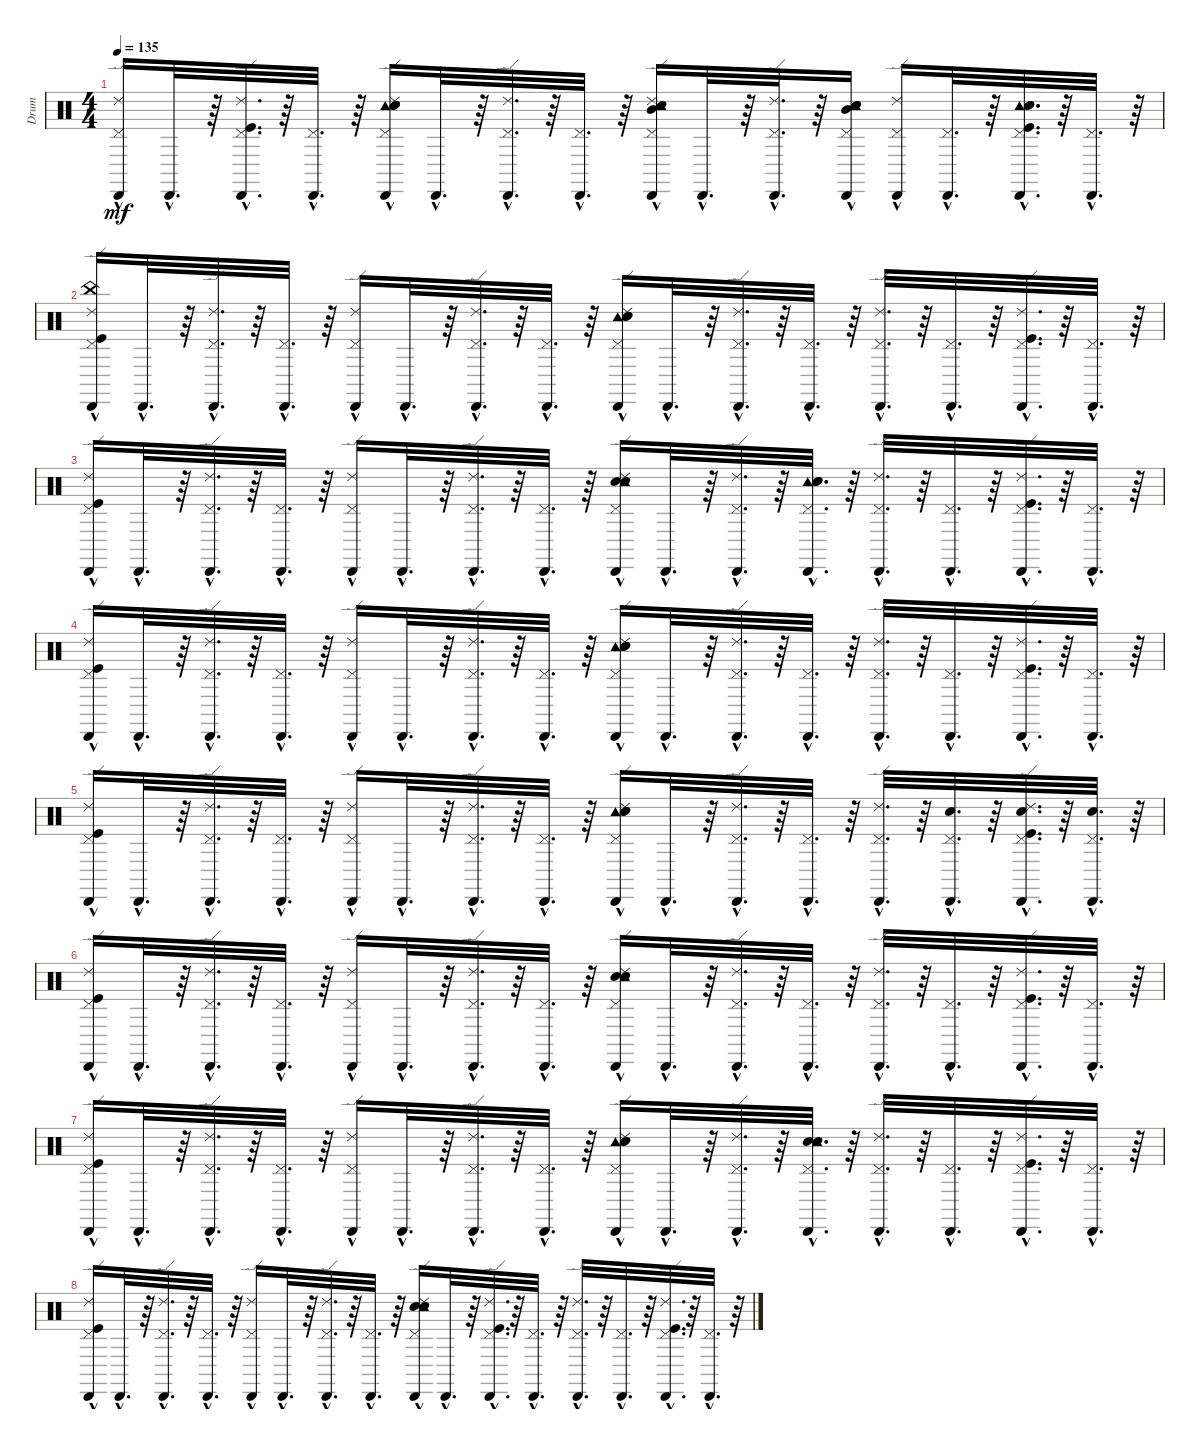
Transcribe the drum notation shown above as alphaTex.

\track ("Drum" "Drum") {instrument percussion}
\staff {score}
\articulation defaults
\ts (4 4)
\tempo 135
\clef neutral
\ks c
("Cabasa (hit)"{hac} "Ride (edge) 2"{hac} "Pedal Hi-Hat (hit)"{hac}).16{dy mf} "Cabasa (hit)"{hac}.32{d} r.64 ("Cabasa (hit)"{hac} "Kick (hit)"{hac} "Pedal Hi-Hat (hit)"{hac} "Ride (edge) 2"{hac}).32{d} r.64 ("Cabasa (hit)"{hac} "Pedal Hi-Hat (hit)"{hac}).32{d} r.64 ("Cabasa (hit)"{hac} "Tambourine (hit)"{hac} "Electric Snare (hit)"{hac} "Snare (hit) 2" "Pedal Hi-Hat (hit)"{hac} "Ride (edge) 2"{hac}).16 "Cabasa (hit)"{hac}.32{d} r.64 ("Cabasa (hit)"{hac} "Pedal Hi-Hat (hit)"{hac} "Ride (edge) 2"{hac}).32{d} r.64 ("Cabasa (hit)"{hac} "Pedal Hi-Hat (hit)"{hac}).32{d} r.64 ("Cabasa (hit)"{hac} "Mid Tom (hit)"{hac} "Ride (edge) 2"{hac} "Pedal Hi-Hat (hit)"{hac} "Tambourine (hit)"{hac} "Electric Snare (hit)"{hac}).16 "Cabasa (hit)"{hac}.32{d} r.64 ("Cabasa (hit)"{hac} "Pedal Hi-Hat (hit)"{hac} "Ride (edge) 2"{hac}).32{d} r.64 ("Cabasa (hit)"{hac} "Mid Tom (hit)" "Pedal Hi-Hat (hit)"{hac} "Snare (hit) 2"{hac} "Electric Snare (hit)"{hac} "Tambourine (hit)"{hac}).16 ("Cabasa (hit)"{hac} "Pedal Hi-Hat (hit)"{hac} "Ride (edge) 2").16 ("Cabasa (hit)"{hac} "Pedal Hi-Hat (hit)"{hac}).32{d} r.64 ("Cabasa (hit)"{hac} "Tambourine (hit)"{hac} "Electric Snare (hit)"{hac} "Snare (hit) 2"{hac} "Pedal Hi-Hat (hit)"{hac} "Kick (hit)"{hac}).32{d} r.64 ("Cabasa (hit)"{hac} "Pedal Hi-Hat (hit)"{hac}).32{d} r.64 |
("Cabasa (hit)"{hac} "China (hit)"{hac} "Ride (edge) 2"{hac} "Kick (hit)"{hac} "Pedal Hi-Hat (hit)"{hac}).16 "Cabasa (hit)"{hac}.32{d} r.64 ("Cabasa (hit)"{hac} "Ride (edge) 2"{hac} "Pedal Hi-Hat (hit)"{hac}).32{d} r.64 ("Cabasa (hit)"{hac} "Pedal Hi-Hat (hit)"{hac}).32{d} r.64 ("Cabasa (hit)"{hac} "Ride (edge) 2"{hac} "Pedal Hi-Hat (hit)"{hac}).16 "Cabasa (hit)"{hac}.32{d} r.64 ("Cabasa (hit)"{hac} "Ride (edge) 2"{hac} "Pedal Hi-Hat (hit)"{hac}).32{d} r.64 ("Cabasa (hit)"{hac} "Pedal Hi-Hat (hit)"{hac}).32{d} r.64 ("Cabasa (hit)"{hac} "Tambourine (hit)"{hac} "Ride (edge) 2"{hac} "Pedal Hi-Hat (hit)"{hac} "Electric Snare (hit)"{hac} "Snare (hit) 2"{hac}).16 "Cabasa (hit)"{hac}.32{d} r.64 ("Cabasa (hit)"{hac} "Ride (edge) 2"{hac} "Pedal Hi-Hat (hit)"{hac}).32{d} r.64 ("Cabasa (hit)"{hac} "Pedal Hi-Hat (hit)"{hac}).32{d} r.64 ("Cabasa (hit)"{hac} "Ride (edge) 2"{hac} "Pedal Hi-Hat (hit)"{hac}).32{d} r.64 ("Cabasa (hit)"{hac} "Pedal Hi-Hat (hit)"{hac}).32{d} r.64 ("Cabasa (hit)"{hac} "Ride (edge) 2"{hac} "Kick (hit)"{hac} "Pedal Hi-Hat (hit)"{hac}).32{d} r.64 ("Cabasa (hit)"{hac} "Pedal Hi-Hat (hit)"{hac}).32{d} r.64 |
("Cabasa (hit)"{hac} "Ride (edge) 2"{hac} "Kick (hit)"{hac} "Pedal Hi-Hat (hit)"{hac}).16 "Cabasa (hit)"{hac}.32{d} r.64 ("Cabasa (hit)"{hac} "Ride (edge) 2"{hac} "Pedal Hi-Hat (hit)"{hac}).32{d} r.64 ("Cabasa (hit)"{hac} "Pedal Hi-Hat (hit)"{hac}).32{d} r.64 ("Cabasa (hit)"{hac} "Ride (edge) 2"{hac} "Pedal Hi-Hat (hit)"{hac}).16 "Cabasa (hit)"{hac}.32{d} r.64 ("Cabasa (hit)"{hac} "Ride (edge) 2"{hac} "Pedal Hi-Hat (hit)"{hac}).32{d} r.64 ("Cabasa (hit)"{hac} "Pedal Hi-Hat (hit)"{hac}).32{d} r.64 ("Cabasa (hit)"{hac} "Electric Snare (hit)"{hac} "Tambourine (hit)"{hac} "Ride (edge) 2"{hac} "Snare (hit) 2"{hac} "Pedal Hi-Hat (hit)"{hac}).16 "Cabasa (hit)"{hac}.32{d} r.64 ("Cabasa (hit)"{hac} "Ride (edge) 2"{hac} "Pedal Hi-Hat (hit)"{hac}).32{d} r.64 ("Cabasa (hit)"{hac} "Tambourine (hit)"{hac} "Snare (hit) 2"{hac} "Electric Snare (hit)"{hac} "Pedal Hi-Hat (hit)"{hac}).32{d} r.64 ("Cabasa (hit)"{hac} "Pedal Hi-Hat (hit)"{hac} "Ride (edge) 2"{hac}).32{d} r.64 ("Cabasa (hit)"{hac} "Pedal Hi-Hat (hit)"{hac}).32{d} r.64 ("Cabasa (hit)"{hac} "Kick (hit)"{hac} "Ride (edge) 2"{hac} "Pedal Hi-Hat (hit)"{hac}).32{d} r.64 ("Cabasa (hit)"{hac} "Pedal Hi-Hat (hit)"{hac}).32{d} r.64 |
("Cabasa (hit)"{hac} "Ride (edge) 2"{hac} "Kick (hit)"{hac} "Pedal Hi-Hat (hit)"{hac}).16 "Cabasa (hit)"{hac}.32{d} r.64 ("Cabasa (hit)"{hac} "Ride (edge) 2"{hac} "Pedal Hi-Hat (hit)"{hac}).32{d} r.64 ("Cabasa (hit)"{hac} "Pedal Hi-Hat (hit)"{hac}).32{d} r.64 ("Cabasa (hit)"{hac} "Ride (edge) 2"{hac} "Pedal Hi-Hat (hit)"{hac}).16 "Cabasa (hit)"{hac}.32{d} r.64 ("Cabasa (hit)"{hac} "Ride (edge) 2"{hac} "Pedal Hi-Hat (hit)"{hac}).32{d} r.64 ("Cabasa (hit)"{hac} "Pedal Hi-Hat (hit)"{hac}).32{d} r.64 ("Cabasa (hit)"{hac} "Tambourine (hit)"{hac} "Ride (edge) 2"{hac} "Pedal Hi-Hat (hit)"{hac} "Electric Snare (hit)"{hac} "Snare (hit) 2"{hac}).16 "Cabasa (hit)"{hac}.32{d} r.64 ("Cabasa (hit)"{hac} "Ride (edge) 2"{hac} "Pedal Hi-Hat (hit)"{hac}).32{d} r.64 ("Cabasa (hit)"{hac} "Pedal Hi-Hat (hit)"{hac}).32{d} r.64 ("Cabasa (hit)"{hac} "Ride (edge) 2"{hac} "Pedal Hi-Hat (hit)"{hac}).32{d} r.64 ("Cabasa (hit)"{hac} "Pedal Hi-Hat (hit)"{hac}).32{d} r.64 ("Cabasa (hit)"{hac} "Ride (edge) 2"{hac} "Kick (hit)"{hac} "Pedal Hi-Hat (hit)"{hac}).32{d} r.64 ("Cabasa (hit)"{hac} "Pedal Hi-Hat (hit)"{hac}).32{d} r.64 |
("Cabasa (hit)"{hac} "Pedal Hi-Hat (hit)"{hac} "Ride (edge) 2"{hac} "Kick (hit)"{hac}).16 "Cabasa (hit)"{hac}.32{d} r.64 ("Cabasa (hit)"{hac} "Ride (edge) 2"{hac} "Pedal Hi-Hat (hit)"{hac}).32{d} r.64 ("Cabasa (hit)"{hac} "Pedal Hi-Hat (hit)"{hac}).32{d} r.64 ("Cabasa (hit)"{hac} "Ride (edge) 2"{hac} "Pedal Hi-Hat (hit)"{hac}).16 "Cabasa (hit)"{hac}.32{d} r.64 ("Cabasa (hit)"{hac} "Ride (edge) 2"{hac} "Pedal Hi-Hat (hit)"{hac}).32{d} r.64 ("Cabasa (hit)"{hac} "Pedal Hi-Hat (hit)"{hac}).32{d} r.64 ("Cabasa (hit)"{hac} "Tambourine (hit)"{hac} "Ride (edge) 2"{hac} "Snare (hit) 2"{hac} "Electric Snare (hit)"{hac} "Pedal Hi-Hat (hit)"{hac}).16 "Cabasa (hit)"{hac}.32{d} r.64 ("Cabasa (hit)"{hac} "Ride (edge) 2"{hac} "Pedal Hi-Hat (hit)"{hac}).32{d} r.64 ("Cabasa (hit)"{hac} "Pedal Hi-Hat (hit)"{hac}).32{d} r.64 ("Cabasa (hit)"{hac} "Ride (edge) 2"{hac} "Pedal Hi-Hat (hit)"{hac}).32{d} r.64 ("Cabasa (hit)"{hac} "Pedal Hi-Hat (hit)"{hac} "Snare (hit) 2"{hac}).32{d} r.64 ("Cabasa (hit)"{hac} "Ride (edge) 2"{hac} "Kick (hit)"{hac} "Pedal Hi-Hat (hit)"{hac} "Snare (hit) 2"{hac}).32{d} r.64 ("Cabasa (hit)"{hac} "Pedal Hi-Hat (hit)"{hac} "Snare (hit) 2"{hac}).32{d} r.64 |
("Cabasa (hit)"{hac} "Pedal Hi-Hat (hit)"{hac} "Kick (hit)"{hac} "Ride (edge) 2"{hac}).16 "Cabasa (hit)"{hac}.32{d} r.64 ("Cabasa (hit)"{hac} "Pedal Hi-Hat (hit)"{hac} "Ride (edge) 2"{hac}).32{d} r.64 ("Cabasa (hit)"{hac} "Pedal Hi-Hat (hit)"{hac}).32{d} r.64 ("Cabasa (hit)"{hac} "Pedal Hi-Hat (hit)"{hac} "Ride (edge) 2"{hac}).16 "Cabasa (hit)"{hac}.32{d} r.64 ("Cabasa (hit)"{hac} "Pedal Hi-Hat (hit)"{hac} "Ride (edge) 2"{hac}).32{d} r.64 ("Cabasa (hit)"{hac} "Pedal Hi-Hat (hit)"{hac}).32{d} r.64 ("Cabasa (hit)"{hac} "Snare (hit) 2"{hac} "Electric Snare (hit)"{hac} "Pedal Hi-Hat (hit)"{hac} "Ride (edge) 2"{hac} "Tambourine (hit)"{hac}).16 "Cabasa (hit)"{hac}.32{d} r.64 ("Cabasa (hit)"{hac} "Pedal Hi-Hat (hit)"{hac} "Ride (edge) 2"{hac}).32{d} r.64 ("Cabasa (hit)"{hac} "Pedal Hi-Hat (hit)"{hac}).32{d} r.64 ("Cabasa (hit)"{hac} "Pedal Hi-Hat (hit)"{hac} "Ride (edge) 2"{hac}).32{d} r.64 ("Cabasa (hit)"{hac} "Pedal Hi-Hat (hit)"{hac}).32{d} r.64 ("Cabasa (hit)"{hac} "Pedal Hi-Hat (hit)"{hac} "Kick (hit)"{hac} "Ride (edge) 2"{hac}).32{d} r.64 ("Cabasa (hit)"{hac} "Pedal Hi-Hat (hit)"{hac}).32{d} r.64 |
("Cabasa (hit)"{hac} "Ride (edge) 2"{hac} "Pedal Hi-Hat (hit)"{hac} "Kick (hit)"{hac}).16 "Cabasa (hit)"{hac}.32{d} r.64 ("Cabasa (hit)"{hac} "Pedal Hi-Hat (hit)"{hac} "Ride (edge) 2"{hac}).32{d} r.64 ("Cabasa (hit)"{hac} "Pedal Hi-Hat (hit)"{hac}).32{d} r.64 ("Cabasa (hit)"{hac} "Pedal Hi-Hat (hit)"{hac} "Ride (edge) 2"{hac}).16 "Cabasa (hit)"{hac}.32{d} r.64 ("Cabasa (hit)"{hac} "Pedal Hi-Hat (hit)"{hac} "Ride (edge) 2"{hac}).32{d} r.64 ("Cabasa (hit)"{hac} "Pedal Hi-Hat (hit)"{hac}).32{d} r.64 ("Cabasa (hit)"{hac} "Tambourine (hit)"{hac} "Electric Snare (hit)"{hac} "Pedal Hi-Hat (hit)"{hac} "Snare (hit) 2"{hac} "Ride (edge) 2"{hac}).16 "Cabasa (hit)"{hac}.32{d} r.64 ("Cabasa (hit)"{hac} "Pedal Hi-Hat (hit)"{hac} "Ride (edge) 2"{hac}).32{d} r.64 ("Cabasa (hit)"{hac} "Snare (hit) 2"{hac} "Tambourine (hit)"{hac} "Pedal Hi-Hat (hit)"{hac} "Electric Snare (hit)"{hac}).32{d} r.64 ("Cabasa (hit)"{hac} "Pedal Hi-Hat (hit)"{hac} "Ride (edge) 2"{hac}).32{d} r.64 ("Cabasa (hit)"{hac} "Pedal Hi-Hat (hit)"{hac}).32{d} r.64 ("Cabasa (hit)"{hac} "Pedal Hi-Hat (hit)"{hac} "Kick (hit)"{hac} "Ride (edge) 2"{hac}).32{d} r.64 ("Cabasa (hit)"{hac} "Pedal Hi-Hat (hit)"{hac}).32{d} r.64 |
("Cabasa (hit)"{hac} "Pedal Hi-Hat (hit)"{hac} "Kick (hit)"{hac} "Ride (edge) 2"{hac}).16 "Cabasa (hit)"{hac}.32{d} r.64 ("Cabasa (hit)"{hac} "Pedal Hi-Hat (hit)"{hac} "Ride (edge) 2"{hac}).32{d} r.64 ("Cabasa (hit)"{hac} "Pedal Hi-Hat (hit)"{hac}).32{d} r.64 ("Cabasa (hit)"{hac} "Pedal Hi-Hat (hit)"{hac} "Ride (edge) 2"{hac}).16 "Cabasa (hit)"{hac}.32{d} r.64 ("Cabasa (hit)"{hac} "Pedal Hi-Hat (hit)"{hac} "Ride (edge) 2"{hac}).32{d} r.64 ("Cabasa (hit)"{hac} "Pedal Hi-Hat (hit)"{hac}).32{d} r.64 ("Cabasa (hit)"{hac} "Snare (hit) 2"{hac} "Electric Snare (hit)"{hac} "Pedal Hi-Hat (hit)"{hac} "Ride (edge) 2"{hac} "Tambourine (hit)"{hac}).16 "Cabasa (hit)"{hac}.32{d} r.64 ("Cabasa (hit)"{hac} "Pedal Hi-Hat (hit)"{hac} "Ride (edge) 2"{hac} "Kick (hit)"{hac}).32{d} r.64 ("Cabasa (hit)"{hac} "Pedal Hi-Hat (hit)"{hac}).32{d} r.64 ("Cabasa (hit)"{hac} "Pedal Hi-Hat (hit)"{hac} "Ride (edge) 2"{hac}).32{d} r.64 ("Cabasa (hit)"{hac} "Pedal Hi-Hat (hit)"{hac}).32{d} r.64 ("Cabasa (hit)"{hac} "Pedal Hi-Hat (hit)"{hac} "Ride (edge) 2"{hac} "Kick (hit)"{hac}).32{d} r.64 ("Cabasa (hit)"{hac} "Pedal Hi-Hat (hit)"{hac}).32{d} r.64
